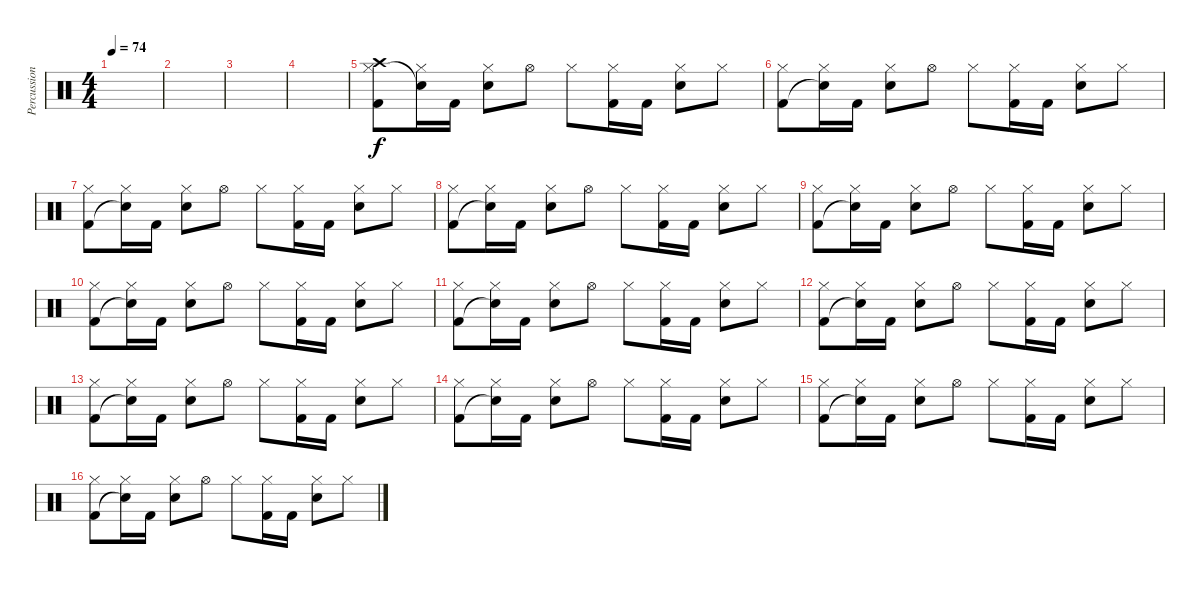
\track ("Percussion" "Percussion") {instrument percussion}
\staff {score}
\articulation defaults
\ts (4 4)
\tempo 74
\clef neutral
\ks c
|
|
|
|
("Crash high (hit)" "Hi-Hat (closed)" "Kick (hit) 2").8 ("Hi-Hat (closed)" "Snare (hit)"{t}).16 "Kick (hit) 2".16 ("Hi-Hat (closed)" "Electric Snare (hit)").8 "Hi-Hat (open)".8 "Hi-Hat (closed)".8 ("Hi-Hat (closed)" "Kick (hit) 2").16 "Kick (hit) 2".16 ("Hi-Hat (closed)" "Electric Snare (hit)").8 "Hi-Hat (closed)".8 |
("Hi-Hat (closed)" "Kick (hit) 2").8 ("Hi-Hat (closed)" "Snare (hit)"{t}).16 "Kick (hit) 2".16 ("Hi-Hat (closed)" "Electric Snare (hit)").8 "Hi-Hat (open)".8 "Hi-Hat (closed)".8 ("Hi-Hat (closed)" "Kick (hit) 2").16 "Kick (hit) 2".16 ("Hi-Hat (closed)" "Electric Snare (hit)").8 "Hi-Hat (closed)".8 |
("Hi-Hat (closed)" "Kick (hit) 2").8 ("Hi-Hat (closed)" "Snare (hit)"{t}).16 "Kick (hit) 2".16 ("Hi-Hat (closed)" "Electric Snare (hit)").8 "Hi-Hat (open)".8 "Hi-Hat (closed)".8 ("Hi-Hat (closed)" "Kick (hit) 2").16 "Kick (hit) 2".16 ("Hi-Hat (closed)" "Electric Snare (hit)").8 "Hi-Hat (closed)".8 |
("Hi-Hat (closed)" "Kick (hit) 2").8 ("Hi-Hat (closed)" "Snare (hit)"{t}).16 "Kick (hit) 2".16 ("Hi-Hat (closed)" "Electric Snare (hit)").8 "Hi-Hat (open)".8 "Hi-Hat (closed)".8 ("Hi-Hat (closed)" "Kick (hit) 2").16 "Kick (hit) 2".16 ("Hi-Hat (closed)" "Electric Snare (hit)").8 "Hi-Hat (closed)".8 |
("Hi-Hat (closed)" "Kick (hit) 2").8 ("Hi-Hat (closed)" "Snare (hit)"{t}).16 "Kick (hit) 2".16 ("Hi-Hat (closed)" "Electric Snare (hit)").8 "Hi-Hat (open)".8 "Hi-Hat (closed)".8 ("Hi-Hat (closed)" "Kick (hit) 2").16 "Kick (hit) 2".16 ("Hi-Hat (closed)" "Electric Snare (hit)").8 "Hi-Hat (closed)".8 |
("Hi-Hat (closed)" "Kick (hit) 2").8 ("Hi-Hat (closed)" "Snare (hit)"{t}).16 "Kick (hit) 2".16 ("Hi-Hat (closed)" "Electric Snare (hit)").8 "Hi-Hat (open)".8 "Hi-Hat (closed)".8 ("Hi-Hat (closed)" "Kick (hit) 2").16 "Kick (hit) 2".16 ("Hi-Hat (closed)" "Electric Snare (hit)").8 "Hi-Hat (closed)".8 |
("Hi-Hat (closed)" "Kick (hit) 2").8 ("Hi-Hat (closed)" "Snare (hit)"{t}).16 "Kick (hit) 2".16 ("Hi-Hat (closed)" "Electric Snare (hit)").8 "Hi-Hat (open)".8 "Hi-Hat (closed)".8 ("Hi-Hat (closed)" "Kick (hit) 2").16 "Kick (hit) 2".16 ("Hi-Hat (closed)" "Electric Snare (hit)").8 "Hi-Hat (closed)".8 |
("Hi-Hat (closed)" "Kick (hit) 2").8 ("Hi-Hat (closed)" "Snare (hit)"{t}).16 "Kick (hit) 2".16 ("Hi-Hat (closed)" "Electric Snare (hit)").8 "Hi-Hat (open)".8 "Hi-Hat (closed)".8 ("Hi-Hat (closed)" "Kick (hit) 2").16 "Kick (hit) 2".16 ("Hi-Hat (closed)" "Electric Snare (hit)").8 "Hi-Hat (closed)".8 |
("Hi-Hat (closed)" "Kick (hit) 2").8 ("Hi-Hat (closed)" "Snare (hit)"{t}).16 "Kick (hit) 2".16 ("Hi-Hat (closed)" "Electric Snare (hit)").8 "Hi-Hat (open)".8 "Hi-Hat (closed)".8 ("Hi-Hat (closed)" "Kick (hit) 2").16 "Kick (hit) 2".16 ("Hi-Hat (closed)" "Electric Snare (hit)").8 "Hi-Hat (closed)".8 |
("Hi-Hat (closed)" "Kick (hit) 2").8 ("Hi-Hat (closed)" "Snare (hit)"{t}).16 "Kick (hit) 2".16 ("Hi-Hat (closed)" "Electric Snare (hit)").8 "Hi-Hat (open)".8 "Hi-Hat (closed)".8 ("Hi-Hat (closed)" "Kick (hit) 2").16 "Kick (hit) 2".16 ("Hi-Hat (closed)" "Electric Snare (hit)").8 "Hi-Hat (closed)".8 |
("Hi-Hat (closed)" "Kick (hit) 2").8 ("Hi-Hat (closed)" "Snare (hit)"{t}).16 "Kick (hit) 2".16 ("Hi-Hat (closed)" "Electric Snare (hit)").8 "Hi-Hat (open)".8 "Hi-Hat (closed)".8 ("Hi-Hat (closed)" "Kick (hit) 2").16 "Kick (hit) 2".16 ("Hi-Hat (closed)" "Electric Snare (hit)").8 "Hi-Hat (closed)".8 |
("Hi-Hat (closed)" "Kick (hit) 2").8 ("Hi-Hat (closed)" "Snare (hit)"{t}).16 "Kick (hit) 2".16 ("Hi-Hat (closed)" "Electric Snare (hit)").8 "Hi-Hat (open)".8 "Hi-Hat (closed)".8 ("Hi-Hat (closed)" "Kick (hit) 2").16 "Kick (hit) 2".16 ("Hi-Hat (closed)" "Electric Snare (hit)").8 "Hi-Hat (closed)".8
